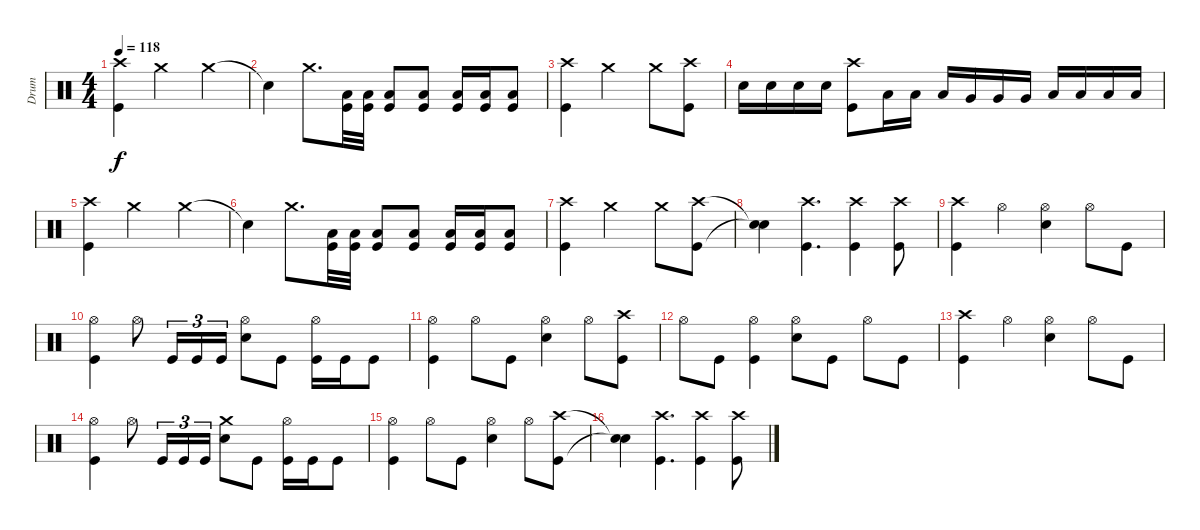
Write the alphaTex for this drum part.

\track ("Drum" "Drum") {instrument percussion}
\staff {score}
\articulation defaults
\ts (4 4)
\tempo 118
\clef neutral
\ks c
("Kick (hit)" "Crash high (hit)").4{dy f} "Crash medium (hit)".2 "Crash medium (hit)".4 |
"Snare (hit)"{t}.4 "Crash medium (hit)".8{d} ("Kick (hit)" "Low Floor Tom (hit)").32 ("Kick (hit)" "Low Floor Tom (hit)").32 ("Kick (hit)" "Low Floor Tom (hit)").8 ("Kick (hit)" "Low Floor Tom (hit)").8 ("Kick (hit)" "Low Floor Tom (hit)").16 ("Kick (hit)" "Low Floor Tom (hit)").16 ("Kick (hit)" "Low Floor Tom (hit)").8 |
("Kick (hit)" "Crash high (hit)").4 "Crash medium (hit)".2 "Crash medium (hit)".8 ("Kick (hit)" "Crash high (hit)").8 |
"Snare (hit) 2".16 "Snare (hit) 2".16 "Snare (hit) 2".16 "Snare (hit) 2".16 ("Kick (hit)" "Crash high (hit)").8 "Low Tom (hit)".16 "Low Tom (hit)".16 "Low Tom (hit)".16 "Very Low Tom (hit)".16 "Very Low Tom (hit)".16 "Very Low Tom (hit)".16 "Low Floor Tom (hit)".16 "Low Floor Tom (hit)".16 "Low Floor Tom (hit)".16 "Low Floor Tom (hit)".16 |
("Kick (hit)" "Crash high (hit)").4 "Crash medium (hit)".2 "Crash medium (hit)".4 |
"Snare (hit)"{t}.4 "Crash medium (hit)".8{d} ("Kick (hit)" "Low Floor Tom (hit)").32 ("Kick (hit)" "Low Floor Tom (hit)").32 ("Kick (hit)" "Low Floor Tom (hit)").8 ("Kick (hit)" "Low Floor Tom (hit)").8 ("Kick (hit)" "Low Floor Tom (hit)").16 ("Kick (hit)" "Low Floor Tom (hit)").16 ("Kick (hit)" "Low Floor Tom (hit)").8 |
("Kick (hit)" "Crash high (hit)").4 "Crash medium (hit)".2 "Crash medium (hit)".8 ("Kick (hit)" "Crash high (hit)").8 |
("Snare (hit)"{t} "Snare (hit)"{t}).4 ("Kick (hit)" "Crash high (hit)").4{d} ("Kick (hit)" "Crash high (hit)").4 ("Kick (hit)" "Crash high (hit)").8 |
("Kick (hit)" "Crash high (hit)").4 "Hi-Hat (open)".4 ("Hi-Hat (open)" "Snare (hit) 2").4 "Hi-Hat (open)".8 "Kick (hit)".8 |
("Kick (hit)" "Hi-Hat (open)").4 "Hi-Hat (open)".8 "Kick (hit)".16{tu (3 2)} "Kick (hit)".16{tu (3 2)} "Kick (hit)".16{tu (3 2)} ("Hi-Hat (open)" "Snare (hit) 2").8 "Kick (hit)".8 ("Kick (hit)" "Hi-Hat (open)").16 "Kick (hit)".16 "Kick (hit)".8 |
("Kick (hit)" "Hi-Hat (open)").4 "Hi-Hat (open)".8 "Kick (hit)".8 ("Hi-Hat (open)" "Snare (hit) 2").4 "Hi-Hat (open)".8 ("Kick (hit)" "Crash high (hit)").8 |
"Hi-Hat (open)".8 "Kick (hit)".8 ("Kick (hit)" "Hi-Hat (open)").4 ("Hi-Hat (open)" "Snare (hit) 2").8 "Kick (hit)".8 "Hi-Hat (open)".8 "Kick (hit)".8 |
("Kick (hit)" "Crash high (hit)").4 "Hi-Hat (open)".4 ("Hi-Hat (open)" "Snare (hit) 2").4 "Hi-Hat (open)".8 "Kick (hit)".8 |
("Kick (hit)" "Hi-Hat (open)").4 "Hi-Hat (open)".8 "Kick (hit)".16{tu (3 2)} "Kick (hit)".16{tu (3 2)} "Kick (hit)".16{tu (3 2)} ("Crash medium (hit)" "Snare (hit) 2").8 "Kick (hit)".8 ("Kick (hit)" "Hi-Hat (open)").16 "Kick (hit)".16 "Kick (hit)".8 |
("Kick (hit)" "Hi-Hat (open)").4 "Hi-Hat (open)".8 "Kick (hit)".8 ("Hi-Hat (open)" "Snare (hit) 2").4 "Hi-Hat (open)".8 ("Kick (hit)" "Crash high (hit)").8 |
("Snare (hit)"{t} "Snare (hit)"{t}).4 ("Kick (hit)" "Crash high (hit)").4{d} ("Kick (hit)" "Crash high (hit)").4 ("Kick (hit)" "Crash high (hit)").8
